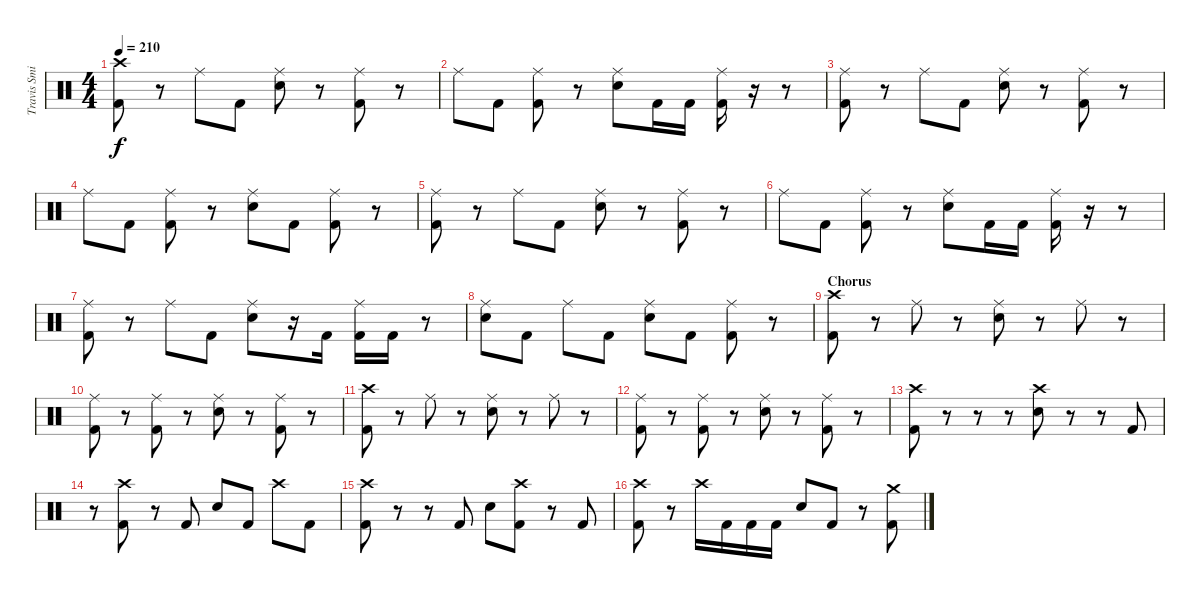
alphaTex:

\track ("Travis Smith" "Travis Smi") {instrument percussion}
\staff {score}
\articulation defaults
\ts (4 4)
\tempo 210
\clef neutral
\ks c
("Crash high (hit)" "Kick (hit) 2").8{dy f} r.8 "Ride (middle)".8 "Kick (hit) 2".8 ("Ride (middle)" "Electric Snare (hit)").8 r.8 ("Ride (middle)" "Kick (hit) 2").8 r.8 |
"Ride (middle)".8 "Kick (hit) 2".8 ("Ride (middle)" "Kick (hit) 2").8 r.8 ("Ride (middle)" "Electric Snare (hit)").8 "Kick (hit) 2".16 "Kick (hit) 2".16 ("Ride (middle)" "Kick (hit) 2").16 r.16 r.8 |
("Ride (middle)" "Kick (hit) 2").8 r.8 "Ride (middle)".8 "Kick (hit) 2".8 ("Ride (middle)" "Electric Snare (hit)").8 r.8 ("Ride (middle)" "Kick (hit) 2").8 r.8 |
"Ride (middle)".8 "Kick (hit) 2".8 ("Ride (middle)" "Kick (hit) 2").8 r.8 ("Ride (middle)" "Electric Snare (hit)").8 "Kick (hit) 2".8 ("Ride (middle)" "Kick (hit) 2").8 r.8 |
("Ride (middle)" "Kick (hit) 2").8 r.8 "Ride (middle)".8 "Kick (hit) 2".8 ("Ride (middle)" "Electric Snare (hit)").8 r.8 ("Ride (middle)" "Kick (hit) 2").8 r.8 |
"Ride (middle)".8 "Kick (hit) 2".8 ("Ride (middle)" "Kick (hit) 2").8 r.8 ("Ride (middle)" "Electric Snare (hit)").8 "Kick (hit) 2".16 "Kick (hit) 2".16 ("Ride (middle)" "Kick (hit) 2").16 r.16 r.8 |
("Ride (middle)" "Kick (hit) 2").8 r.8 "Ride (middle)".8 "Kick (hit) 2".8 ("Ride (middle)" "Electric Snare (hit)").8 r.16 "Kick (hit) 2".16 ("Ride (middle)" "Kick (hit) 2").16 "Kick (hit) 2".16 r.8 |
("Ride (middle)" "Electric Snare (hit)").8 "Kick (hit) 2".8 "Ride (middle)".8 "Kick (hit) 2".8 ("Ride (middle)" "Electric Snare (hit)").8 "Kick (hit) 2".8 ("Ride (middle)" "Kick (hit) 2").8 r.8 |
\section ("" "Chorus")
("Crash high (hit)" "Kick (hit) 2").8 r.8 "Ride (middle)".8 r.8 ("Ride (middle)" "Electric Snare (hit)").8 r.8 "Ride (middle)".8 r.8 |
("Ride (middle)" "Kick (hit) 2").8 r.8 ("Ride (middle)" "Kick (hit) 2").8 r.8 ("Ride (middle)" "Electric Snare (hit)").8 r.8 ("Ride (middle)" "Kick (hit) 2").8 r.8 |
("Crash high (hit)" "Kick (hit) 2").8 r.8 "Ride (middle)".8 r.8 ("Ride (middle)" "Electric Snare (hit)").8 r.8 "Ride (middle)".8 r.8 |
("Ride (middle)" "Kick (hit) 2").8 r.8 ("Ride (middle)" "Kick (hit) 2").8 r.8 ("Ride (middle)" "Electric Snare (hit)").8 r.8 ("Ride (middle)" "Kick (hit) 2").8 r.8 |
("Crash high (hit)" "Kick (hit) 2").8 r.8 r.8 r.8 ("Crash high (hit)" "Electric Snare (hit)").8 r.8 r.8 "Kick (hit) 2".8 |
r.8 ("Crash high (hit)" "Kick (hit) 2").8 r.8 "Kick (hit) 2".8 "Electric Snare (hit)".8 "Kick (hit) 2".8 "Crash high (hit)".8 "Kick (hit) 2".8 |
("Crash high (hit)" "Kick (hit) 2").8 r.8 r.8 "Kick (hit) 2".8 "Electric Snare (hit)".8 ("Crash high (hit)" "Kick (hit) 2").8 r.8 "Kick (hit) 2".8 |
("Crash high (hit)" "Kick (hit) 2").8 r.8 "Crash high (hit)".16 "Kick (hit) 2".16 "Kick (hit) 2".16 "Kick (hit) 2".16 "Electric Snare (hit)".8 "Kick (hit) 2".8 r.8 ("Crash medium (hit)" "Kick (hit) 2").8
